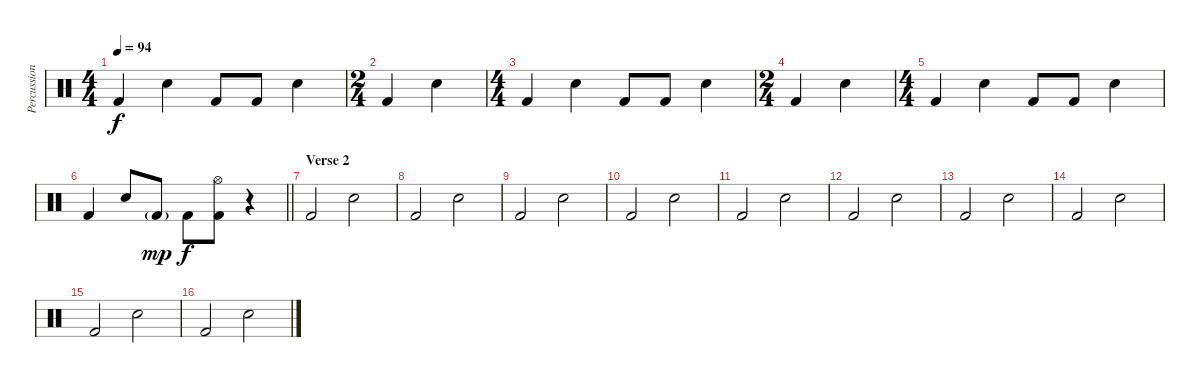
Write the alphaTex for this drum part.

\track ("Percussion" "Percussion") {instrument percussion}
\staff {score}
\articulation defaults
\ts (4 4)
\tempo 94
\clef neutral
\ks c "Kick (hit) 2".4{dy f} "Snare (hit) 2".4 "Kick (hit) 2".8 "Kick (hit) 2".8 "Snare (hit) 2".4
|
\ts (2 4)
"Kick (hit) 2".4 "Snare (hit) 2".4 |
\ts (4 4)
"Kick (hit) 2".4 "Snare (hit) 2".4 "Kick (hit) 2".8 "Kick (hit) 2".8 "Snare (hit) 2".4 |
\ts (2 4)
"Kick (hit) 2".4 "Snare (hit) 2".4 |
\ts (4 4)
"Kick (hit) 2".4 "Snare (hit) 2".4 "Kick (hit) 2".8 "Kick (hit) 2".8 "Snare (hit) 2".4 |
\barLineRight lightlight "Kick (hit) 2".4 "Snare (hit) 2".8 "Kick (hit) 2"{g}.8{dy mp} "Kick (hit) 2".8{dy f}
("Hi-Hat (open)" "Kick (hit) 2").8 r.4 |
\section ("" "Verse 2")
"Kick (hit) 2".2 "Snare (hit) 2".2 |
"Kick (hit) 2".2 "Snare (hit) 2".2 |
"Kick (hit) 2".2 "Snare (hit) 2".2 |
"Kick (hit) 2".2 "Snare (hit) 2".2 |
"Kick (hit) 2".2 "Snare (hit) 2".2 |
"Kick (hit) 2".2 "Snare (hit) 2".2 |
"Kick (hit) 2".2 "Snare (hit) 2".2 |
"Kick (hit) 2".2 "Snare (hit) 2".2 |
"Kick (hit) 2".2 "Snare (hit) 2".2 |
"Kick (hit) 2".2 "Snare (hit) 2".2
